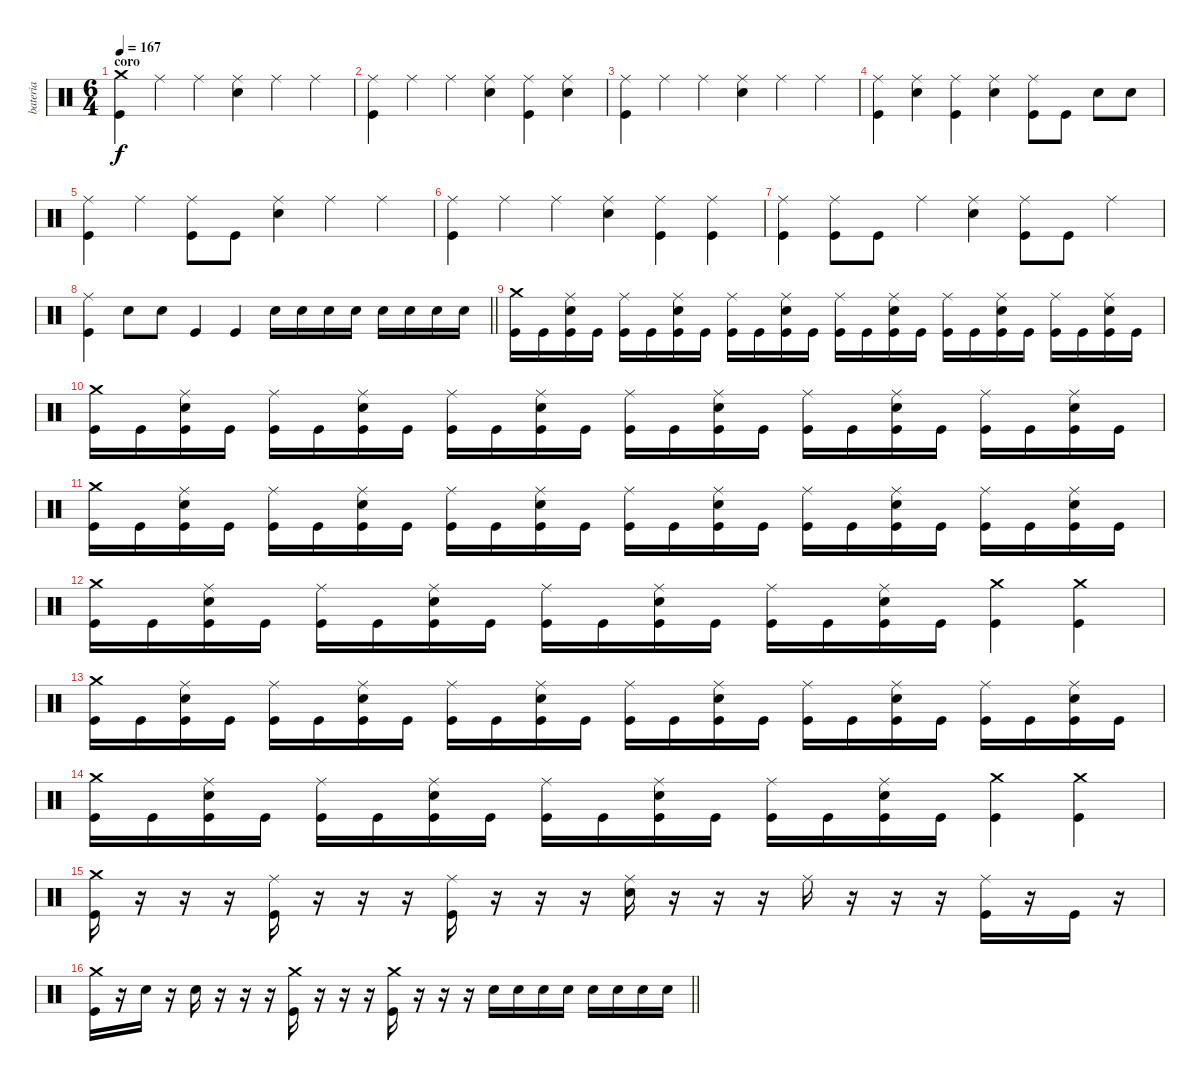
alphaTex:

\track ("bateria" "bateria") {instrument percussion}
\staff {score}
\articulation defaults
\ts (6 4)
\section ("" "coro")
\tempo 167
\clef neutral
\ks c
("Crash medium (hit)" "Kick (hit)").4{dy f} "Ride (middle)".4 "Ride (middle)".4 ("Ride (middle)" "Snare (hit) 2").4 "Ride (middle)".4 "Ride (middle)".4 |
("Ride (middle)" "Kick (hit)").4 "Ride (middle)".4 "Ride (middle)".4 ("Ride (middle)" "Snare (hit) 2").4 ("Ride (middle)" "Kick (hit)").4 ("Ride (middle)" "Snare (hit) 2").4 |
("Ride (middle)" "Kick (hit)").4 "Ride (middle)".4 "Ride (middle)".4 ("Ride (middle)" "Snare (hit) 2").4 "Ride (middle)".4 "Ride (middle)".4 |
("Ride (middle)" "Kick (hit)").4 ("Ride (middle)" "Snare (hit) 2").4 ("Ride (middle)" "Kick (hit)").4 ("Ride (middle)" "Snare (hit) 2").4 ("Ride (middle)" "Kick (hit)").8 "Kick (hit)".8 "Snare (hit) 2".8 "Snare (hit) 2".8 |
("Ride (middle)" "Kick (hit)").4 "Ride (middle)".4 ("Ride (middle)" "Kick (hit)").8 "Kick (hit)".8 ("Ride (middle)" "Snare (hit) 2").4 "Ride (middle)".4 "Ride (middle)".4 |
("Ride (middle)" "Kick (hit)").4 "Ride (middle)".4 "Ride (middle)".4 ("Ride (middle)" "Snare (hit) 2").4 ("Ride (middle)" "Kick (hit)").4 ("Ride (middle)" "Kick (hit)").4 |
("Ride (middle)" "Kick (hit)").4 ("Ride (middle)" "Kick (hit)").8 "Kick (hit)".8 "Ride (middle)".4 ("Ride (middle)" "Snare (hit) 2").4 ("Ride (middle)" "Kick (hit)").8 "Kick (hit)".8 "Ride (middle)".4 |
\barLineRight lightlight
("Ride (middle)" "Kick (hit)").4 "Snare (hit) 2".8 "Snare (hit) 2".8 "Kick (hit)".4 "Kick (hit)".4 "Snare (hit) 2".16 "Snare (hit) 2".16 "Snare (hit) 2".16 "Snare (hit) 2".16 "Snare (hit) 2".16 "Snare (hit) 2".16 "Snare (hit) 2".16 "Snare (hit) 2".16 |
("Crash medium (hit)" "Kick (hit)").16 "Kick (hit)".16 ("Ride (middle)" "Snare (hit) 2" "Kick (hit)").16 "Kick (hit)".16 ("Ride (middle)" "Kick (hit)").16 "Kick (hit)".16 ("Ride (middle)" "Snare (hit) 2" "Kick (hit)").16 "Kick (hit)".16 ("Ride (middle)" "Kick (hit)").16 "Kick (hit)".16 ("Ride (middle)" "Snare (hit) 2" "Kick (hit)").16 "Kick (hit)".16 ("Ride (middle)" "Kick (hit)").16 "Kick (hit)".16 ("Ride (middle)" "Snare (hit) 2" "Kick (hit)").16 "Kick (hit)".16 ("Ride (middle)" "Kick (hit)").16 "Kick (hit)".16 ("Ride (middle)" "Snare (hit) 2" "Kick (hit)").16 "Kick (hit)".16 ("Ride (middle)" "Kick (hit)").16 "Kick (hit)".16 ("Ride (middle)" "Snare (hit) 2" "Kick (hit)").16 "Kick (hit)".16 |
("Crash medium (hit)" "Kick (hit)").16 "Kick (hit)".16 ("Ride (middle)" "Snare (hit) 2" "Kick (hit)").16 "Kick (hit)".16 ("Ride (middle)" "Kick (hit)").16 "Kick (hit)".16 ("Ride (middle)" "Snare (hit) 2" "Kick (hit)").16 "Kick (hit)".16 ("Ride (middle)" "Kick (hit)").16 "Kick (hit)".16 ("Ride (middle)" "Snare (hit) 2" "Kick (hit)").16 "Kick (hit)".16 ("Ride (middle)" "Kick (hit)").16 "Kick (hit)".16 ("Ride (middle)" "Snare (hit) 2" "Kick (hit)").16 "Kick (hit)".16 ("Ride (middle)" "Kick (hit)").16 "Kick (hit)".16 ("Ride (middle)" "Snare (hit) 2" "Kick (hit)").16 "Kick (hit)".16 ("Ride (middle)" "Kick (hit)").16 "Kick (hit)".16 ("Ride (middle)" "Snare (hit) 2" "Kick (hit)").16 "Kick (hit)".16 |
("Crash medium (hit)" "Kick (hit)").16 "Kick (hit)".16 ("Ride (middle)" "Snare (hit) 2" "Kick (hit)").16 "Kick (hit)".16 ("Ride (middle)" "Kick (hit)").16 "Kick (hit)".16 ("Ride (middle)" "Snare (hit) 2" "Kick (hit)").16 "Kick (hit)".16 ("Ride (middle)" "Kick (hit)").16 "Kick (hit)".16 ("Ride (middle)" "Snare (hit) 2" "Kick (hit)").16 "Kick (hit)".16 ("Ride (middle)" "Kick (hit)").16 "Kick (hit)".16 ("Ride (middle)" "Snare (hit) 2" "Kick (hit)").16 "Kick (hit)".16 ("Ride (middle)" "Kick (hit)").16 "Kick (hit)".16 ("Ride (middle)" "Snare (hit) 2" "Kick (hit)").16 "Kick (hit)".16 ("Ride (middle)" "Kick (hit)").16 "Kick (hit)".16 ("Ride (middle)" "Snare (hit) 2" "Kick (hit)").16 "Kick (hit)".16 |
("Crash medium (hit)" "Kick (hit)").16 "Kick (hit)".16 ("Ride (middle)" "Snare (hit) 2" "Kick (hit)").16 "Kick (hit)".16 ("Ride (middle)" "Kick (hit)").16 "Kick (hit)".16 ("Ride (middle)" "Snare (hit) 2" "Kick (hit)").16 "Kick (hit)".16 ("Ride (middle)" "Kick (hit)").16 "Kick (hit)".16 ("Ride (middle)" "Snare (hit) 2" "Kick (hit)").16 "Kick (hit)".16 ("Ride (middle)" "Kick (hit)").16 "Kick (hit)".16 ("Ride (middle)" "Snare (hit) 2" "Kick (hit)").16 "Kick (hit)".16 ("Crash medium (hit)" "Kick (hit)").4 ("Crash medium (hit)" "Kick (hit)").4 |
("Crash medium (hit)" "Kick (hit)").16 "Kick (hit)".16 ("Ride (middle)" "Snare (hit) 2" "Kick (hit)").16 "Kick (hit)".16 ("Ride (middle)" "Kick (hit)").16 "Kick (hit)".16 ("Ride (middle)" "Snare (hit) 2" "Kick (hit)").16 "Kick (hit)".16 ("Ride (middle)" "Kick (hit)").16 "Kick (hit)".16 ("Ride (middle)" "Snare (hit) 2" "Kick (hit)").16 "Kick (hit)".16 ("Ride (middle)" "Kick (hit)").16 "Kick (hit)".16 ("Ride (middle)" "Snare (hit) 2" "Kick (hit)").16 "Kick (hit)".16 ("Ride (middle)" "Kick (hit)").16 "Kick (hit)".16 ("Ride (middle)" "Snare (hit) 2" "Kick (hit)").16 "Kick (hit)".16 ("Ride (middle)" "Kick (hit)").16 "Kick (hit)".16 ("Ride (middle)" "Snare (hit) 2" "Kick (hit)").16 "Kick (hit)".16 |
("Crash medium (hit)" "Kick (hit)").16 "Kick (hit)".16 ("Ride (middle)" "Snare (hit) 2" "Kick (hit)").16 "Kick (hit)".16 ("Ride (middle)" "Kick (hit)").16 "Kick (hit)".16 ("Ride (middle)" "Snare (hit) 2" "Kick (hit)").16 "Kick (hit)".16 ("Ride (middle)" "Kick (hit)").16 "Kick (hit)".16 ("Ride (middle)" "Snare (hit) 2" "Kick (hit)").16 "Kick (hit)".16 ("Ride (middle)" "Kick (hit)").16 "Kick (hit)".16 ("Ride (middle)" "Snare (hit) 2" "Kick (hit)").16 "Kick (hit)".16 ("Crash medium (hit)" "Kick (hit)").4 ("Crash medium (hit)" "Kick (hit)").4 |
("Crash medium (hit)" "Kick (hit)").16 r.16 r.16 r.16 ("Ride (middle)" "Kick (hit)").16 r.16 r.16 r.16 ("Ride (middle)" "Kick (hit)").16 r.16 r.16 r.16 ("Ride (middle)" "Snare (hit) 2").16 r.16 r.16 r.16 "Ride (middle)".16 r.16 r.16 r.16 ("Ride (middle)" "Kick (hit)").16 r.16 "Kick (hit)".16 r.16 |
\barLineRight lightlight
("Crash medium (hit)" "Kick (hit)").16 r.16 "Snare (hit) 2".16 r.16 "Snare (hit) 2".16 r.16 r.16 r.16 ("Crash medium (hit)" "Kick (hit)").16 r.16 r.16 r.16 ("Crash medium (hit)" "Kick (hit)").16 r.16 r.16 r.16 "Snare (hit) 2".16 "Snare (hit) 2".16 "Snare (hit) 2".16 "Snare (hit) 2".16 "Snare (hit) 2".16 "Snare (hit) 2".16 "Snare (hit) 2".16 "Snare (hit) 2".16
